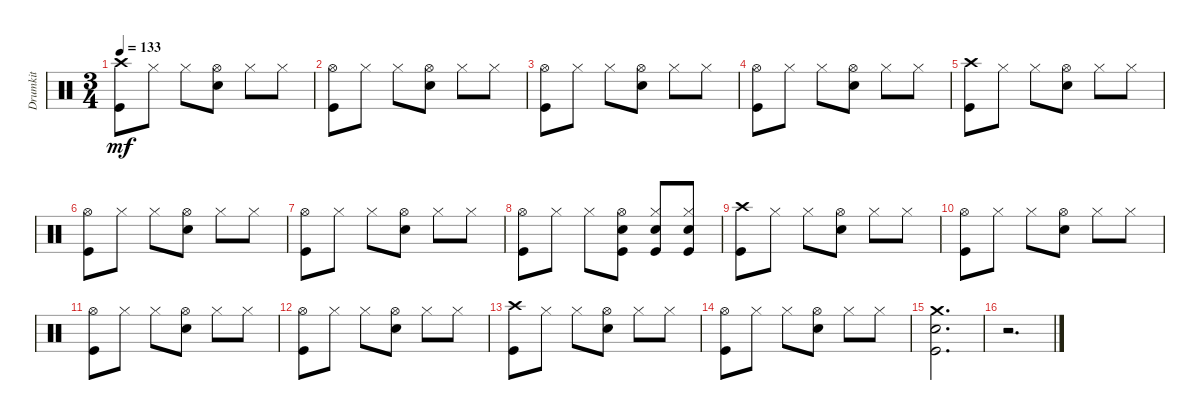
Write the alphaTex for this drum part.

\track ("Drumkit" "Drumkit") {instrument percussion}
\staff {score}
\articulation defaults
\ts (3 4)
\tempo 133
\clef neutral
\ks c
("Crash high (hit)" "Kick (hit)").8{dy mf} "Hi-Hat (closed)".8 "Hi-Hat (closed)".8 ("Hi-Hat (open)" "Snare (hit) 2").8 "Hi-Hat (closed)".8 "Hi-Hat (closed)".8 |
("Kick (hit)" "Hi-Hat (open)").8 "Hi-Hat (closed)".8 "Hi-Hat (closed)".8 ("Hi-Hat (open)" "Snare (hit) 2").8 "Hi-Hat (closed)".8 "Hi-Hat (closed)".8 |
("Kick (hit)" "Hi-Hat (open)").8 "Hi-Hat (closed)".8 "Hi-Hat (closed)".8 ("Hi-Hat (open)" "Snare (hit) 2").8 "Hi-Hat (closed)".8 "Hi-Hat (closed)".8 |
("Kick (hit)" "Hi-Hat (open)").8 "Hi-Hat (closed)".8 "Hi-Hat (closed)".8 ("Hi-Hat (open)" "Snare (hit) 2").8 "Hi-Hat (closed)".8 "Hi-Hat (closed)".8 |
("Crash high (hit)" "Kick (hit)").8 "Hi-Hat (closed)".8 "Hi-Hat (closed)".8 ("Hi-Hat (open)" "Snare (hit) 2").8 "Hi-Hat (closed)".8 "Hi-Hat (closed)".8 |
("Kick (hit)" "Hi-Hat (open)").8 "Hi-Hat (closed)".8 "Hi-Hat (closed)".8 ("Hi-Hat (open)" "Snare (hit) 2").8 "Hi-Hat (closed)".8 "Hi-Hat (closed)".8 |
("Kick (hit)" "Hi-Hat (open)").8 "Hi-Hat (closed)".8 "Hi-Hat (closed)".8 ("Hi-Hat (open)" "Snare (hit) 2").8 "Hi-Hat (closed)".8 "Hi-Hat (closed)".8 |
("Kick (hit)" "Hi-Hat (open)").8 "Hi-Hat (closed)".8 "Hi-Hat (closed)".8 ("Hi-Hat (open)" "Snare (hit) 2" "Kick (hit)").8 ("Hi-Hat (closed)" "Kick (hit)" "Snare (hit) 2").8 ("Hi-Hat (closed)" "Kick (hit)" "Snare (hit) 2").8 |
("Crash high (hit)" "Kick (hit)").8 "Hi-Hat (closed)".8 "Hi-Hat (closed)".8 ("Hi-Hat (open)" "Snare (hit) 2").8 "Hi-Hat (closed)".8 "Hi-Hat (closed)".8 |
("Kick (hit)" "Hi-Hat (open)").8 "Hi-Hat (closed)".8 "Hi-Hat (closed)".8 ("Hi-Hat (open)" "Snare (hit) 2").8 "Hi-Hat (closed)".8 "Hi-Hat (closed)".8 |
("Kick (hit)" "Hi-Hat (open)").8 "Hi-Hat (closed)".8 "Hi-Hat (closed)".8 ("Hi-Hat (open)" "Snare (hit) 2").8 "Hi-Hat (closed)".8 "Hi-Hat (closed)".8 |
("Kick (hit)" "Hi-Hat (open)").8 "Hi-Hat (closed)".8 "Hi-Hat (closed)".8 ("Hi-Hat (open)" "Snare (hit) 2").8 "Hi-Hat (closed)".8 "Hi-Hat (closed)".8 |
("Crash high (hit)" "Kick (hit)").8 "Hi-Hat (closed)".8 "Hi-Hat (closed)".8 ("Hi-Hat (open)" "Snare (hit) 2").8 "Hi-Hat (closed)".8 "Hi-Hat (closed)".8 |
("Kick (hit)" "Hi-Hat (open)").8 "Hi-Hat (closed)".8 "Hi-Hat (closed)".8 ("Hi-Hat (open)" "Snare (hit) 2").8 "Hi-Hat (closed)".8 "Hi-Hat (closed)".8 |
("Crash medium (hit)" "Kick (hit)" "Snare (hit) 2").2{d} |
r.2{d}
